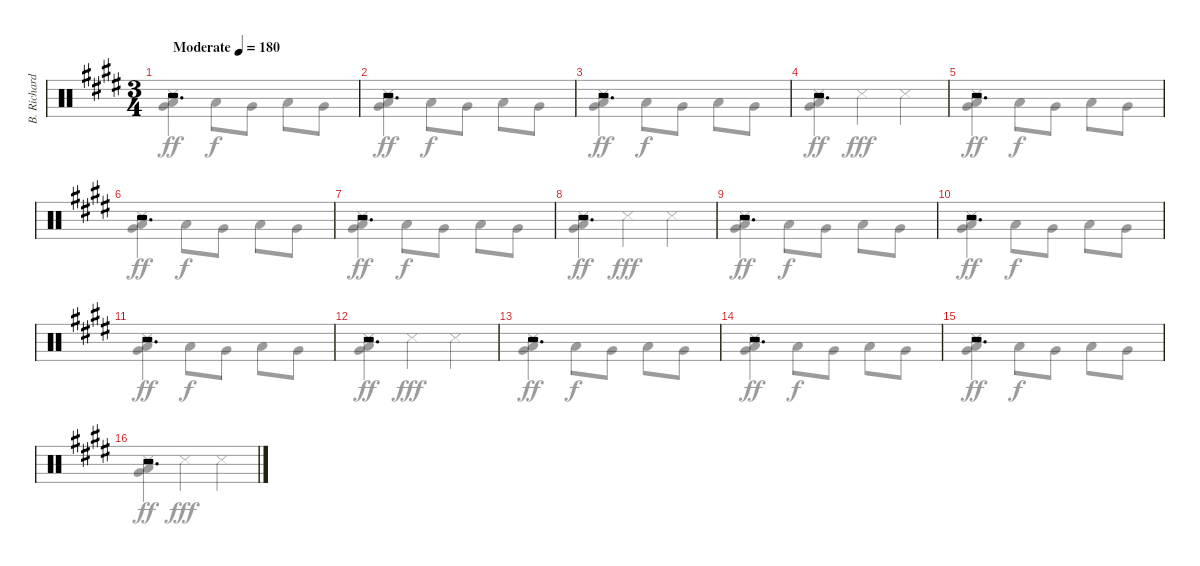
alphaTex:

\track ("B. Richardson Drums" "B. Richard") {instrument percussion}
\staff {score}
\articulation defaults
\voice
\ts (3 4)
\tempo (180 "Moderate")
\clef neutral
\ks c#minor
r.2{d dy pp} |
r.2{d} |
r.2{d} |
r.2{d} |
r.2{d} |
r.2{d} |
r.2{d} |
r.2{d} |
r.2{d} |
r.2{d} |
r.2{d} |
r.2{d} |
r.2{d} |
r.2{d} |
r.2{d} |
r.2{d}
\voice
\clef neutral
\ottava regular
\simile none
\ks c#minor
("Snare (side stick) 3" "Very Low Tom (hit)" "Low Floor Tom (hit)").4{dy ff} "Low Floor Tom (hit)".8{dy f} "Very Low Tom (hit)".8 "Low Floor Tom (hit)".8 "Very Low Tom (hit)".8 |
("Snare (side stick) 3" "Very Low Tom (hit)" "Low Floor Tom (hit)").4{dy ff} "Low Floor Tom (hit)".8{dy f} "Very Low Tom (hit)".8 "Low Floor Tom (hit)".8 "Very Low Tom (hit)".8 |
("Snare (side stick) 3" "Very Low Tom (hit)" "Low Floor Tom (hit)").4{dy ff} "Low Floor Tom (hit)".8{dy f} "Very Low Tom (hit)".8 "Low Floor Tom (hit)".8 "Very Low Tom (hit)".8 |
("Snare (side stick) 3" "Very Low Tom (hit)" "Low Floor Tom (hit)").4{dy ff} "Snare (side stick) 3".4{dy fff} "Snare (side stick) 3".4 |
("Snare (side stick) 3" "Very Low Tom (hit)" "Low Floor Tom (hit)").4{dy ff} "Low Floor Tom (hit)".8{dy f} "Very Low Tom (hit)".8 "Low Floor Tom (hit)".8 "Very Low Tom (hit)".8 |
("Snare (side stick) 3" "Very Low Tom (hit)" "Low Floor Tom (hit)").4{dy ff} "Low Floor Tom (hit)".8{dy f} "Very Low Tom (hit)".8 "Low Floor Tom (hit)".8 "Very Low Tom (hit)".8 |
("Snare (side stick) 3" "Very Low Tom (hit)" "Low Floor Tom (hit)").4{dy ff} "Low Floor Tom (hit)".8{dy f} "Very Low Tom (hit)".8 "Low Floor Tom (hit)".8 "Very Low Tom (hit)".8 |
("Snare (side stick) 3" "Very Low Tom (hit)" "Low Floor Tom (hit)").4{dy ff} "Snare (side stick) 3".4{dy fff} "Snare (side stick) 3".4 |
("Snare (side stick) 3" "Very Low Tom (hit)" "Low Floor Tom (hit)").4{dy ff} "Low Floor Tom (hit)".8{dy f} "Very Low Tom (hit)".8 "Low Floor Tom (hit)".8 "Very Low Tom (hit)".8 |
("Snare (side stick) 3" "Very Low Tom (hit)" "Low Floor Tom (hit)").4{dy ff} "Low Floor Tom (hit)".8{dy f} "Very Low Tom (hit)".8 "Low Floor Tom (hit)".8 "Very Low Tom (hit)".8 |
("Snare (side stick) 3" "Very Low Tom (hit)" "Low Floor Tom (hit)").4{dy ff} "Low Floor Tom (hit)".8{dy f} "Very Low Tom (hit)".8 "Low Floor Tom (hit)".8 "Very Low Tom (hit)".8 |
("Snare (side stick) 3" "Very Low Tom (hit)" "Low Floor Tom (hit)").4{dy ff} "Snare (side stick) 3".4{dy fff} "Snare (side stick) 3".4 |
("Snare (side stick) 3" "Very Low Tom (hit)" "Low Floor Tom (hit)").4{dy ff} "Low Floor Tom (hit)".8{dy f} "Very Low Tom (hit)".8 "Low Floor Tom (hit)".8 "Very Low Tom (hit)".8 |
("Snare (side stick) 3" "Very Low Tom (hit)" "Low Floor Tom (hit)").4{dy ff} "Low Floor Tom (hit)".8{dy f} "Very Low Tom (hit)".8 "Low Floor Tom (hit)".8 "Very Low Tom (hit)".8 |
("Snare (side stick) 3" "Very Low Tom (hit)" "Low Floor Tom (hit)").4{dy ff} "Low Floor Tom (hit)".8{dy f} "Very Low Tom (hit)".8 "Low Floor Tom (hit)".8 "Very Low Tom (hit)".8 |
("Snare (side stick) 3" "Very Low Tom (hit)" "Low Floor Tom (hit)").4{dy ff} "Snare (side stick) 3".4{dy fff} "Snare (side stick) 3".4
